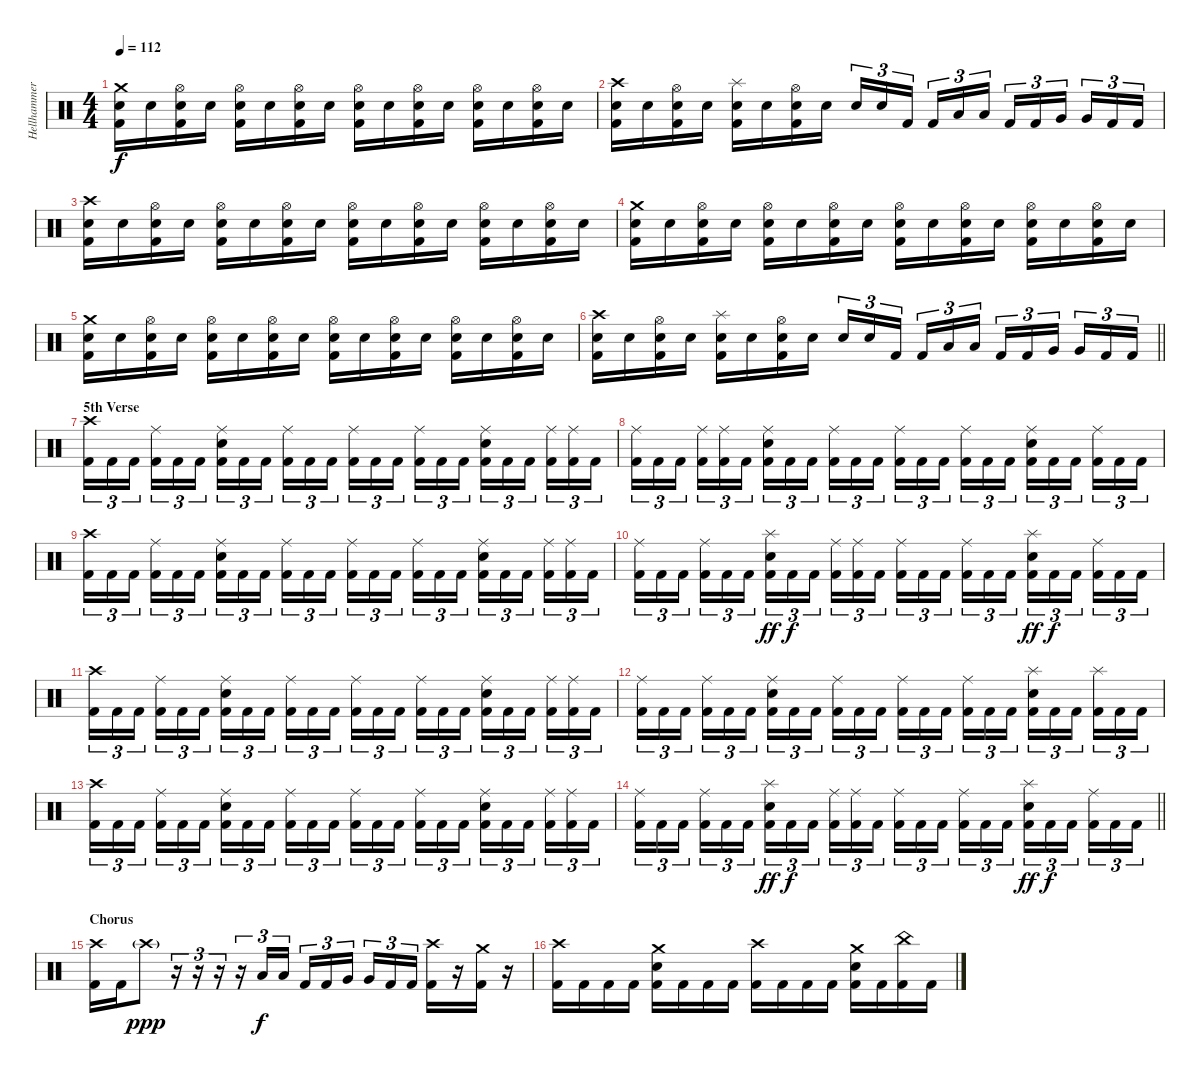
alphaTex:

\track ("Hellhammer" "Hellhammer") {instrument percussion}
\staff {score}
\articulation defaults
\ts (4 4)
\tempo 112
\clef neutral
\ks c
("Crash medium (hit)" "Snare (hit) 2" "Kick (hit) 2").16{dy f} "Snare (hit) 2".16 ("Hi-Hat (open)" "Snare (hit) 2" "Kick (hit) 2").16 "Snare (hit) 2".16 ("Hi-Hat (open)" "Snare (hit) 2" "Kick (hit) 2").16 "Snare (hit) 2".16 ("Hi-Hat (open)" "Snare (hit) 2" "Kick (hit) 2").16 "Snare (hit) 2".16 ("Hi-Hat (open)" "Snare (hit) 2" "Kick (hit) 2").16 "Snare (hit) 2".16 ("Hi-Hat (open)" "Snare (hit) 2" "Kick (hit) 2").16 "Snare (hit) 2".16 ("Hi-Hat (open)" "Snare (hit) 2" "Kick (hit) 2").16 "Snare (hit) 2".16 ("Hi-Hat (open)" "Snare (hit) 2" "Kick (hit) 2").16 "Snare (hit) 2".16 |
("Crash high (hit)" "Snare (hit) 2" "Kick (hit) 2").16 "Snare (hit) 2".16 ("Hi-Hat (open)" "Snare (hit) 2" "Kick (hit) 2").16 "Snare (hit) 2".16 ("Splash (hit)" "Snare (hit) 2" "Kick (hit) 2").16 "Snare (hit) 2".16 ("Hi-Hat (open)" "Snare (hit) 2" "Kick (hit) 2").16 "Snare (hit) 2".16 "Snare (hit) 2".16{tu (3 2)} "Snare (hit) 2".16{tu (3 2)} "Kick (hit) 2".16{tu (3 2) beam splitsecondary} "Kick (hit) 2".16{tu (3 2)} "Low Tom (hit)".16{tu (3 2)} "Low Tom (hit)".16{tu (3 2)} "Kick (hit) 2".16{tu (3 2)} "Kick (hit) 2".16{tu (3 2)} "Very Low Tom (hit)".16{tu (3 2) beam splitsecondary} "Very Low Tom (hit)".16{tu (3 2)} "Kick (hit) 2".16{tu (3 2)} "Kick (hit) 2".16{tu (3 2)} |
("Crash high (hit)" "Snare (hit) 2" "Kick (hit) 2").16 "Snare (hit) 2".16 ("Hi-Hat (open)" "Snare (hit) 2" "Kick (hit) 2").16 "Snare (hit) 2".16 ("Hi-Hat (open)" "Snare (hit) 2" "Kick (hit) 2").16 "Snare (hit) 2".16 ("Hi-Hat (open)" "Snare (hit) 2" "Kick (hit) 2").16 "Snare (hit) 2".16 ("Hi-Hat (open)" "Snare (hit) 2" "Kick (hit) 2").16 "Snare (hit) 2".16 ("Hi-Hat (open)" "Snare (hit) 2" "Kick (hit) 2").16 "Snare (hit) 2".16 ("Hi-Hat (open)" "Snare (hit) 2" "Kick (hit) 2").16 "Snare (hit) 2".16 ("Hi-Hat (open)" "Snare (hit) 2" "Kick (hit) 2").16 "Snare (hit) 2".16 |
("Crash medium (hit)" "Snare (hit) 2" "Kick (hit) 2").16 "Snare (hit) 2".16 ("Hi-Hat (open)" "Snare (hit) 2" "Kick (hit) 2").16 "Snare (hit) 2".16 ("Hi-Hat (open)" "Snare (hit) 2" "Kick (hit) 2").16 "Snare (hit) 2".16 ("Hi-Hat (open)" "Snare (hit) 2" "Kick (hit) 2").16 "Snare (hit) 2".16 ("Hi-Hat (open)" "Snare (hit) 2" "Kick (hit) 2").16 "Snare (hit) 2".16 ("Hi-Hat (open)" "Snare (hit) 2" "Kick (hit) 2").16 "Snare (hit) 2".16 ("Hi-Hat (open)" "Snare (hit) 2" "Kick (hit) 2").16 "Snare (hit) 2".16 ("Hi-Hat (open)" "Snare (hit) 2" "Kick (hit) 2").16 "Snare (hit) 2".16 |
("Crash medium (hit)" "Snare (hit) 2" "Kick (hit) 2").16 "Snare (hit) 2".16 ("Hi-Hat (open)" "Snare (hit) 2" "Kick (hit) 2").16 "Snare (hit) 2".16 ("Hi-Hat (open)" "Snare (hit) 2" "Kick (hit) 2").16 "Snare (hit) 2".16 ("Hi-Hat (open)" "Snare (hit) 2" "Kick (hit) 2").16 "Snare (hit) 2".16 ("Hi-Hat (open)" "Snare (hit) 2" "Kick (hit) 2").16 "Snare (hit) 2".16 ("Hi-Hat (open)" "Snare (hit) 2" "Kick (hit) 2").16 "Snare (hit) 2".16 ("Hi-Hat (open)" "Snare (hit) 2" "Kick (hit) 2").16 "Snare (hit) 2".16 ("Hi-Hat (open)" "Snare (hit) 2" "Kick (hit) 2").16 "Snare (hit) 2".16 |
\barLineRight lightlight
("Crash high (hit)" "Snare (hit) 2" "Kick (hit) 2").16 "Snare (hit) 2".16 ("Hi-Hat (open)" "Snare (hit) 2" "Kick (hit) 2").16 "Snare (hit) 2".16 ("Splash (hit)" "Snare (hit) 2" "Kick (hit) 2").16 "Snare (hit) 2".16 ("Hi-Hat (open)" "Snare (hit) 2" "Kick (hit) 2").16 "Snare (hit) 2".16 "Snare (hit) 2".16{tu (3 2)} "Snare (hit) 2".16{tu (3 2)} "Kick (hit) 2".16{tu (3 2) beam splitsecondary} "Kick (hit) 2".16{tu (3 2)} "Low Tom (hit)".16{tu (3 2)} "Low Tom (hit)".16{tu (3 2)} "Kick (hit) 2".16{tu (3 2)} "Kick (hit) 2".16{tu (3 2)} "Very Low Tom (hit)".16{tu (3 2) beam splitsecondary} "Very Low Tom (hit)".16{tu (3 2)} "Kick (hit) 2".16{tu (3 2)} "Kick (hit) 2".16{tu (3 2)} |
\section ("" "5th Verse")
("Crash high (hit)" "Kick (hit) 2").16{tu (3 2)} "Kick (hit) 2".16{tu (3 2)} "Kick (hit) 2".16{tu (3 2) beam splitsecondary} ("Ride (middle)" "Kick (hit) 2").16{tu (3 2)} "Kick (hit) 2".16{tu (3 2)} "Kick (hit) 2".16{tu (3 2)} ("Ride (middle)" "Snare (hit) 2" "Kick (hit) 2").16{tu (3 2)} "Kick (hit) 2".16{tu (3 2)} "Kick (hit) 2".16{tu (3 2) beam splitsecondary} ("Ride (middle)" "Kick (hit) 2").16{tu (3 2)} "Kick (hit) 2".16{tu (3 2)} "Kick (hit) 2".16{tu (3 2)} ("Ride (middle)" "Kick (hit) 2").16{tu (3 2)} "Kick (hit) 2".16{tu (3 2)} "Kick (hit) 2".16{tu (3 2) beam splitsecondary} ("Ride (middle)" "Kick (hit) 2").16{tu (3 2)} "Kick (hit) 2".16{tu (3 2)} "Kick (hit) 2".16{tu (3 2)} ("Ride (middle)" "Snare (hit) 2" "Kick (hit) 2").16{tu (3 2)} "Kick (hit) 2".16{tu (3 2)} "Kick (hit) 2".16{tu (3 2) beam splitsecondary} ("Ride (middle)" "Kick (hit) 2").16{tu (3 2)} ("Ride (middle)" "Kick (hit) 2").16{tu (3 2)} "Kick (hit) 2".16{tu (3 2)} |
("Ride (middle)" "Kick (hit) 2").16{tu (3 2)} "Kick (hit) 2".16{tu (3 2)} "Kick (hit) 2".16{tu (3 2) beam splitsecondary} ("Ride (middle)" "Kick (hit) 2").16{tu (3 2)} ("Ride (middle)" "Kick (hit) 2").16{tu (3 2)} "Kick (hit) 2".16{tu (3 2)} ("Ride (middle)" "Snare (hit) 2" "Kick (hit) 2").16{tu (3 2)} "Kick (hit) 2".16{tu (3 2)} "Kick (hit) 2".16{tu (3 2) beam splitsecondary} ("Ride (middle)" "Kick (hit) 2").16{tu (3 2)} "Kick (hit) 2".16{tu (3 2)} "Kick (hit) 2".16{tu (3 2)} ("Ride (middle)" "Kick (hit) 2").16{tu (3 2)} "Kick (hit) 2".16{tu (3 2)} "Kick (hit) 2".16{tu (3 2) beam splitsecondary} ("Ride (middle)" "Kick (hit) 2").16{tu (3 2)} "Kick (hit) 2".16{tu (3 2)} "Kick (hit) 2".16{tu (3 2)} ("Ride (middle)" "Snare (hit) 2" "Kick (hit) 2").16{tu (3 2)} "Kick (hit) 2".16{tu (3 2)} "Kick (hit) 2".16{tu (3 2) beam splitsecondary} ("Ride (middle)" "Kick (hit) 2").16{tu (3 2)} "Kick (hit) 2".16{tu (3 2)} "Kick (hit) 2".16{tu (3 2)} |
("Crash high (hit)" "Kick (hit) 2").16{tu (3 2)} "Kick (hit) 2".16{tu (3 2)} "Kick (hit) 2".16{tu (3 2) beam splitsecondary} ("Ride (middle)" "Kick (hit) 2").16{tu (3 2)} "Kick (hit) 2".16{tu (3 2)} "Kick (hit) 2".16{tu (3 2)} ("Ride (middle)" "Snare (hit) 2" "Kick (hit) 2").16{tu (3 2)} "Kick (hit) 2".16{tu (3 2)} "Kick (hit) 2".16{tu (3 2) beam splitsecondary} ("Ride (middle)" "Kick (hit) 2").16{tu (3 2)} "Kick (hit) 2".16{tu (3 2)} "Kick (hit) 2".16{tu (3 2)} ("Ride (middle)" "Kick (hit) 2").16{tu (3 2)} "Kick (hit) 2".16{tu (3 2)} "Kick (hit) 2".16{tu (3 2) beam splitsecondary} ("Ride (middle)" "Kick (hit) 2").16{tu (3 2)} "Kick (hit) 2".16{tu (3 2)} "Kick (hit) 2".16{tu (3 2)} ("Ride (middle)" "Snare (hit) 2" "Kick (hit) 2").16{tu (3 2)} "Kick (hit) 2".16{tu (3 2)} "Kick (hit) 2".16{tu (3 2) beam splitsecondary} ("Ride (middle)" "Kick (hit) 2").16{tu (3 2)} ("Ride (middle)" "Kick (hit) 2").16{tu (3 2)} "Kick (hit) 2".16{tu (3 2)} |
("Ride (middle)" "Kick (hit) 2").16{tu (3 2)} "Kick (hit) 2".16{tu (3 2)} "Kick (hit) 2".16{tu (3 2) beam splitsecondary} ("Ride (middle)" "Kick (hit) 2").16{tu (3 2)} "Kick (hit) 2".16{tu (3 2)} "Kick (hit) 2".16{tu (3 2)} ("Splash (hit)" "Snare (hit) 2" "Kick (hit) 2").16{tu (3 2) dy ff} "Kick (hit) 2".16{tu (3 2) dy f} "Kick (hit) 2".16{tu (3 2) beam splitsecondary} ("Ride (middle)" "Kick (hit) 2").16{tu (3 2)} ("Ride (middle)" "Kick (hit) 2").16{tu (3 2)} "Kick (hit) 2".16{tu (3 2)} ("Ride (middle)" "Kick (hit) 2").16{tu (3 2)} "Kick (hit) 2".16{tu (3 2)} "Kick (hit) 2".16{tu (3 2) beam splitsecondary} ("Ride (middle)" "Kick (hit) 2").16{tu (3 2)} "Kick (hit) 2".16{tu (3 2)} "Kick (hit) 2".16{tu (3 2)} ("Splash (hit)" "Snare (hit) 2" "Kick (hit) 2").16{tu (3 2) dy ff} "Kick (hit) 2".16{tu (3 2) dy f} "Kick (hit) 2".16{tu (3 2) beam splitsecondary} ("Ride (middle)" "Kick (hit) 2").16{tu (3 2)} "Kick (hit) 2".16{tu (3 2)} "Kick (hit) 2".16{tu (3 2)} |
("Crash high (hit)" "Kick (hit) 2").16{tu (3 2)} "Kick (hit) 2".16{tu (3 2)} "Kick (hit) 2".16{tu (3 2) beam splitsecondary} ("Ride (middle)" "Kick (hit) 2").16{tu (3 2)} "Kick (hit) 2".16{tu (3 2)} "Kick (hit) 2".16{tu (3 2)} ("Ride (middle)" "Snare (hit) 2" "Kick (hit) 2").16{tu (3 2)} "Kick (hit) 2".16{tu (3 2)} "Kick (hit) 2".16{tu (3 2) beam splitsecondary} ("Ride (middle)" "Kick (hit) 2").16{tu (3 2)} "Kick (hit) 2".16{tu (3 2)} "Kick (hit) 2".16{tu (3 2)} ("Ride (middle)" "Kick (hit) 2").16{tu (3 2)} "Kick (hit) 2".16{tu (3 2)} "Kick (hit) 2".16{tu (3 2) beam splitsecondary} ("Ride (middle)" "Kick (hit) 2").16{tu (3 2)} "Kick (hit) 2".16{tu (3 2)} "Kick (hit) 2".16{tu (3 2)} ("Ride (middle)" "Snare (hit) 2" "Kick (hit) 2").16{tu (3 2)} "Kick (hit) 2".16{tu (3 2)} "Kick (hit) 2".16{tu (3 2) beam splitsecondary} ("Ride (middle)" "Kick (hit) 2").16{tu (3 2)} ("Ride (middle)" "Kick (hit) 2").16{tu (3 2)} "Kick (hit) 2".16{tu (3 2)} |
("Ride (middle)" "Kick (hit) 2").16{tu (3 2)} "Kick (hit) 2".16{tu (3 2)} "Kick (hit) 2".16{tu (3 2) beam splitsecondary} ("Ride (middle)" "Kick (hit) 2").16{tu (3 2)} "Kick (hit) 2".16{tu (3 2)} "Kick (hit) 2".16{tu (3 2)} ("Ride (middle)" "Snare (hit) 2" "Kick (hit) 2").16{tu (3 2)} "Kick (hit) 2".16{tu (3 2)} "Kick (hit) 2".16{tu (3 2) beam splitsecondary} ("Ride (middle)" "Kick (hit) 2").16{tu (3 2)} "Kick (hit) 2".16{tu (3 2)} "Kick (hit) 2".16{tu (3 2)} ("Ride (middle)" "Kick (hit) 2").16{tu (3 2)} "Kick (hit) 2".16{tu (3 2)} "Kick (hit) 2".16{tu (3 2) beam splitsecondary} ("Ride (middle)" "Kick (hit) 2").16{tu (3 2)} "Kick (hit) 2".16{tu (3 2)} "Kick (hit) 2".16{tu (3 2)} ("Splash (hit)" "Snare (hit) 2" "Kick (hit) 2").16{tu (3 2)} "Kick (hit) 2".16{tu (3 2)} "Kick (hit) 2".16{tu (3 2) beam splitsecondary} ("Splash (hit)" "Kick (hit) 2").16{tu (3 2)} "Kick (hit) 2".16{tu (3 2)} "Kick (hit) 2".16{tu (3 2)} |
("Crash high (hit)" "Kick (hit) 2").16{tu (3 2)} "Kick (hit) 2".16{tu (3 2)} "Kick (hit) 2".16{tu (3 2) beam splitsecondary} ("Ride (middle)" "Kick (hit) 2").16{tu (3 2)} "Kick (hit) 2".16{tu (3 2)} "Kick (hit) 2".16{tu (3 2)} ("Ride (middle)" "Snare (hit) 2" "Kick (hit) 2").16{tu (3 2)} "Kick (hit) 2".16{tu (3 2)} "Kick (hit) 2".16{tu (3 2) beam splitsecondary} ("Ride (middle)" "Kick (hit) 2").16{tu (3 2)} "Kick (hit) 2".16{tu (3 2)} "Kick (hit) 2".16{tu (3 2)} ("Ride (middle)" "Kick (hit) 2").16{tu (3 2)} "Kick (hit) 2".16{tu (3 2)} "Kick (hit) 2".16{tu (3 2) beam splitsecondary} ("Ride (middle)" "Kick (hit) 2").16{tu (3 2)} "Kick (hit) 2".16{tu (3 2)} "Kick (hit) 2".16{tu (3 2)} ("Ride (middle)" "Snare (hit) 2" "Kick (hit) 2").16{tu (3 2)} "Kick (hit) 2".16{tu (3 2)} "Kick (hit) 2".16{tu (3 2) beam splitsecondary} ("Ride (middle)" "Kick (hit) 2").16{tu (3 2)} ("Ride (middle)" "Kick (hit) 2").16{tu (3 2)} "Kick (hit) 2".16{tu (3 2)} |
\barLineRight lightlight
("Ride (middle)" "Kick (hit) 2").16{tu (3 2)} "Kick (hit) 2".16{tu (3 2)} "Kick (hit) 2".16{tu (3 2) beam splitsecondary} ("Ride (middle)" "Kick (hit) 2").16{tu (3 2)} "Kick (hit) 2".16{tu (3 2)} "Kick (hit) 2".16{tu (3 2)} ("Splash (hit)" "Snare (hit) 2" "Kick (hit) 2").16{tu (3 2) dy ff} "Kick (hit) 2".16{tu (3 2) dy f} "Kick (hit) 2".16{tu (3 2) beam splitsecondary} ("Ride (middle)" "Kick (hit) 2").16{tu (3 2)} ("Ride (middle)" "Kick (hit) 2").16{tu (3 2)} "Kick (hit) 2".16{tu (3 2)} ("Ride (middle)" "Kick (hit) 2").16{tu (3 2)} "Kick (hit) 2".16{tu (3 2)} "Kick (hit) 2".16{tu (3 2) beam splitsecondary} ("Ride (middle)" "Kick (hit) 2").16{tu (3 2)} "Kick (hit) 2".16{tu (3 2)} "Kick (hit) 2".16{tu (3 2)} ("Splash (hit)" "Snare (hit) 2" "Kick (hit) 2").16{tu (3 2) dy ff} "Kick (hit) 2".16{tu (3 2) dy f} "Kick (hit) 2".16{tu (3 2) beam splitsecondary} ("Ride (middle)" "Kick (hit) 2").16{tu (3 2)} "Kick (hit) 2".16{tu (3 2)} "Kick (hit) 2".16{tu (3 2)} |
\section ("" "Chorus")
("Crash high (hit)" "Kick (hit) 2").16 "Kick (hit) 2".16 "Crash high (hit)"{g}.8{dy ppp} r.16{tu (3 2)} r.16{tu (3 2)} r.16{tu (3 2)} r.16{tu (3 2)} "Low Tom (hit)".16{tu (3 2) dy f} "Low Tom (hit)".16{tu (3 2)} "Kick (hit) 2".16{tu (3 2)} "Kick (hit) 2".16{tu (3 2)} "Very Low Tom (hit)".16{tu (3 2) beam splitsecondary} "Very Low Tom (hit)".16{tu (3 2)} "Kick (hit) 2".16{tu (3 2)} "Kick (hit) 2".16{tu (3 2)} ("Crash high (hit)" "Kick (hit) 2").16 r.16 ("Crash medium (hit)" "Kick (hit) 2").16 r.16 |
("Crash high (hit)" "Kick (hit) 2").16 "Kick (hit) 2".16 "Kick (hit) 2".16 "Kick (hit) 2".16 ("Crash medium (hit)" "Snare (hit) 2" "Kick (hit) 2").16 "Kick (hit) 2".16 "Kick (hit) 2".16 "Kick (hit) 2".16 ("Crash high (hit)" "Kick (hit) 2").16 "Kick (hit) 2".16 "Kick (hit) 2".16 "Kick (hit) 2".16 ("Crash medium (hit)" "Snare (hit) 2" "Kick (hit) 2").16 "Kick (hit) 2".16 ("China (hit)" "Kick (hit) 2").16 "Kick (hit) 2".16
